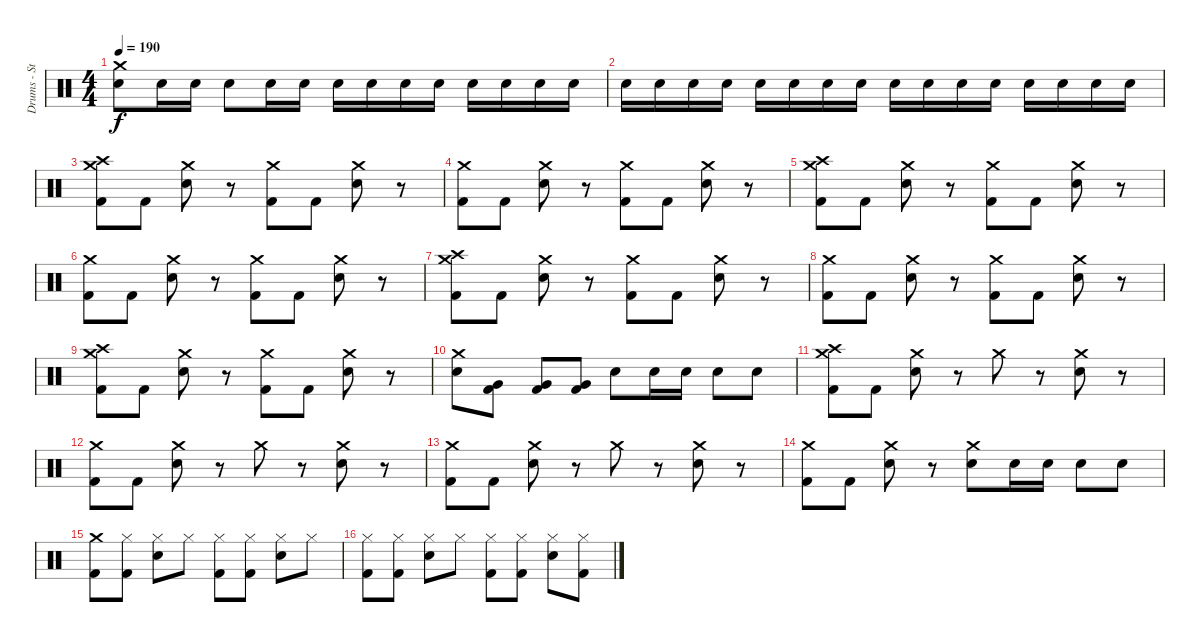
\track ("Drums - Stevo 32" "Drums - St") {instrument percussion}
\staff {score}
\articulation defaults
\ts (4 4)
\tempo 190
\clef neutral
\ks c
("Crash medium (hit)" "Electric Snare (hit)").8{dy f} "Electric Snare (hit)".16 "Electric Snare (hit)".16 "Electric Snare (hit)".8 "Electric Snare (hit)".16 "Electric Snare (hit)".16 "Electric Snare (hit)".16 "Electric Snare (hit)".16 "Electric Snare (hit)".16 "Electric Snare (hit)".16 "Electric Snare (hit)".16 "Electric Snare (hit)".16 "Electric Snare (hit)".16 "Electric Snare (hit)".16 |
"Electric Snare (hit)".16 "Electric Snare (hit)".16 "Electric Snare (hit)".16 "Electric Snare (hit)".16 "Electric Snare (hit)".16 "Electric Snare (hit)".16 "Electric Snare (hit)".16 "Electric Snare (hit)".16 "Electric Snare (hit)".16 "Electric Snare (hit)".16 "Electric Snare (hit)".16 "Electric Snare (hit)".16 "Electric Snare (hit)".16 "Electric Snare (hit)".16 "Electric Snare (hit)".16 "Electric Snare (hit)".16 |
("Crash high (hit)" "Crash medium (hit)" "Kick (hit) 2").8 "Kick (hit) 2".8 ("Crash medium (hit)" "Electric Snare (hit)").8 r.8 ("Crash medium (hit)" "Kick (hit) 2").8 "Kick (hit) 2".8 ("Crash medium (hit)" "Electric Snare (hit)").8 r.8 |
("Crash medium (hit)" "Kick (hit) 2").8 "Kick (hit) 2".8 ("Crash medium (hit)" "Electric Snare (hit)").8 r.8 ("Crash medium (hit)" "Kick (hit) 2").8 "Kick (hit) 2".8 ("Crash medium (hit)" "Electric Snare (hit)").8 r.8 |
("Crash high (hit)" "Crash medium (hit)" "Kick (hit) 2").8 "Kick (hit) 2".8 ("Crash medium (hit)" "Electric Snare (hit)").8 r.8 ("Crash medium (hit)" "Kick (hit) 2").8 "Kick (hit) 2".8 ("Crash medium (hit)" "Electric Snare (hit)").8 r.8 |
("Crash medium (hit)" "Kick (hit) 2").8 "Kick (hit) 2".8 ("Crash medium (hit)" "Electric Snare (hit)").8 r.8 ("Crash medium (hit)" "Kick (hit) 2").8 "Kick (hit) 2".8 ("Crash medium (hit)" "Electric Snare (hit)").8 r.8 |
("Crash high (hit)" "Crash medium (hit)" "Kick (hit) 2").8 "Kick (hit) 2".8 ("Crash medium (hit)" "Electric Snare (hit)").8 r.8 ("Crash medium (hit)" "Kick (hit) 2").8 "Kick (hit) 2".8 ("Crash medium (hit)" "Electric Snare (hit)").8 r.8 |
("Crash medium (hit)" "Kick (hit) 2").8 "Kick (hit) 2".8 ("Crash medium (hit)" "Electric Snare (hit)").8 r.8 ("Crash medium (hit)" "Kick (hit) 2").8 "Kick (hit) 2".8 ("Crash medium (hit)" "Electric Snare (hit)").8 r.8 |
("Crash high (hit)" "Crash medium (hit)" "Kick (hit) 2").8 "Kick (hit) 2".8 ("Crash medium (hit)" "Electric Snare (hit)").8 r.8 ("Crash medium (hit)" "Kick (hit) 2").8 "Kick (hit) 2".8 ("Crash medium (hit)" "Electric Snare (hit)").8 r.8 |
("Crash medium (hit)" "Electric Snare (hit)").8 ("Very Low Tom (hit)" "Kick (hit) 2").8 ("Very Low Tom (hit)" "Kick (hit) 2").8 ("Very Low Tom (hit)" "Kick (hit) 2").8 "Electric Snare (hit)".8 "Electric Snare (hit)".16 "Electric Snare (hit)".16 "Electric Snare (hit)".8 "Electric Snare (hit)".8 |
("Crash high (hit)" "Crash medium (hit)" "Kick (hit) 2").8 "Kick (hit) 2".8 ("Crash medium (hit)" "Electric Snare (hit)").8 r.8 "Crash medium (hit)".8 r.8 ("Crash medium (hit)" "Electric Snare (hit)").8 r.8 |
("Crash medium (hit)" "Kick (hit) 2").8 "Kick (hit) 2".8 ("Crash medium (hit)" "Electric Snare (hit)").8 r.8 "Crash medium (hit)".8 r.8 ("Crash medium (hit)" "Electric Snare (hit)").8 r.8 |
("Crash medium (hit)" "Kick (hit) 2").8 "Kick (hit) 2".8 ("Crash medium (hit)" "Electric Snare (hit)").8 r.8 "Crash medium (hit)".8 r.8 ("Crash medium (hit)" "Electric Snare (hit)").8 r.8 |
("Crash medium (hit)" "Kick (hit) 2").8 "Kick (hit) 2".8 ("Crash medium (hit)" "Electric Snare (hit)").8 r.8 ("Crash medium (hit)" "Electric Snare (hit)").8 "Electric Snare (hit)".16 "Electric Snare (hit)".16 "Electric Snare (hit)".8 "Electric Snare (hit)".8 |
("Crash medium (hit)" "Kick (hit) 2").8 ("Hi-Hat (closed)" "Kick (hit) 2").8 ("Hi-Hat (closed)" "Electric Snare (hit)").8 "Hi-Hat (closed)".8 ("Hi-Hat (closed)" "Kick (hit) 2").8 ("Hi-Hat (closed)" "Kick (hit) 2").8 ("Hi-Hat (closed)" "Electric Snare (hit)").8 "Hi-Hat (closed)".8 |
("Hi-Hat (closed)" "Kick (hit) 2").8 ("Hi-Hat (closed)" "Kick (hit) 2").8 ("Hi-Hat (closed)" "Electric Snare (hit)").8 "Hi-Hat (closed)".8 ("Hi-Hat (closed)" "Kick (hit) 2").8 ("Hi-Hat (closed)" "Kick (hit) 2").8 ("Hi-Hat (closed)" "Electric Snare (hit)").8 ("Hi-Hat (closed)" "Kick (hit) 2").8
